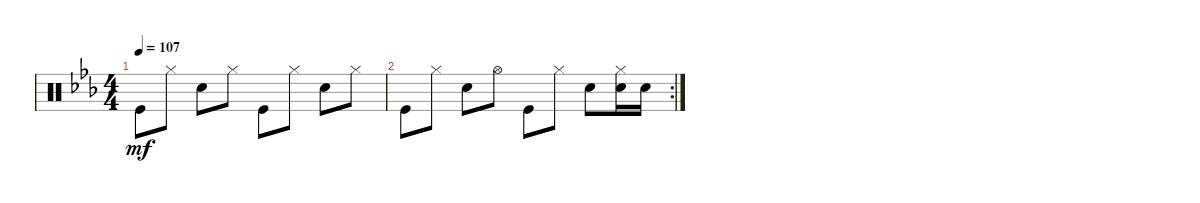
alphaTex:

\defaultSystemsLayout 4
\bracketExtendMode groupsimilarinstruments
\singleTrackTrackNamePolicy hidden
\firstSystemTrackNameOrientation horizontal
\otherSystemsTrackNameOrientation horizontal
\chordDiagramsInScore
\track ("Drumkit" "Drums") {instrument percussion}
\staff {score}
\articulation defaults
\ts (4 4)
\tempo 107
\clef neutral
\ks cminor "Kick (hit)".8{dy mf} "Hi-Hat (closed)".8 "Snare (hit) 2".8 "Hi-Hat (closed)".8 "Kick (hit)".8 "Hi-Hat (closed)".8 "Snare (hit) 2".8 "Hi-Hat (closed)".8
|
\rc 2 "Kick (hit)".8 "Hi-Hat (closed)".8 "Snare (hit) 2".8 "Hi-Hat (open)".8 "Kick (hit)".8 "Hi-Hat (closed)".8 "Snare (hit) 2".8
("Hi-Hat (closed)" "Snare (hit) 2").16 "Snare (hit) 2".16
